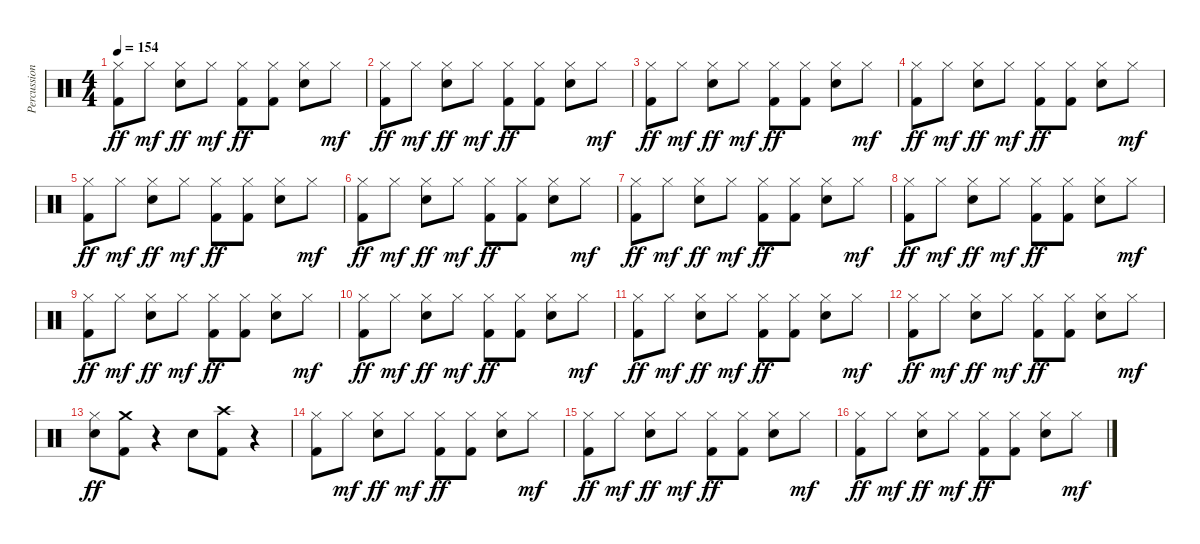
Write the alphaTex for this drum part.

\track ("Percussions" "Percussion") {instrument percussion}
\staff {score}
\articulation defaults
\ts (4 4)
\tempo 154
\clef neutral
\ks c
("Hi-Hat (closed)" "Kick (hit) 2").8{dy ff} "Hi-Hat (closed)".8{dy mf} ("Hi-Hat (closed)" "Electric Snare (hit)").8{dy ff} "Hi-Hat (closed)".8{dy mf} ("Hi-Hat (closed)" "Kick (hit) 2").8{dy ff} ("Hi-Hat (closed)" "Kick (hit) 2").8 ("Hi-Hat (closed)" "Electric Snare (hit)").8 "Hi-Hat (closed)".8{dy mf} |
("Hi-Hat (closed)" "Kick (hit) 2").8{dy ff} "Hi-Hat (closed)".8{dy mf} ("Hi-Hat (closed)" "Electric Snare (hit)").8{dy ff} "Hi-Hat (closed)".8{dy mf} ("Hi-Hat (closed)" "Kick (hit) 2").8{dy ff} ("Hi-Hat (closed)" "Kick (hit) 2").8 ("Hi-Hat (closed)" "Electric Snare (hit)").8 "Hi-Hat (closed)".8{dy mf} |
("Hi-Hat (closed)" "Kick (hit) 2").8{dy ff} "Hi-Hat (closed)".8{dy mf} ("Hi-Hat (closed)" "Electric Snare (hit)").8{dy ff} "Hi-Hat (closed)".8{dy mf} ("Hi-Hat (closed)" "Kick (hit) 2").8{dy ff} ("Hi-Hat (closed)" "Kick (hit) 2").8 ("Hi-Hat (closed)" "Electric Snare (hit)").8 "Hi-Hat (closed)".8{dy mf} |
("Hi-Hat (closed)" "Kick (hit) 2").8{dy ff} "Hi-Hat (closed)".8{dy mf} ("Hi-Hat (closed)" "Electric Snare (hit)").8{dy ff} "Hi-Hat (closed)".8{dy mf} ("Hi-Hat (closed)" "Kick (hit) 2").8{dy ff} ("Hi-Hat (closed)" "Kick (hit) 2").8 ("Hi-Hat (closed)" "Electric Snare (hit)").8 "Hi-Hat (closed)".8{dy mf} |
("Hi-Hat (closed)" "Kick (hit) 2").8{dy ff} "Hi-Hat (closed)".8{dy mf} ("Hi-Hat (closed)" "Electric Snare (hit)").8{dy ff} "Hi-Hat (closed)".8{dy mf} ("Hi-Hat (closed)" "Kick (hit) 2").8{dy ff} ("Hi-Hat (closed)" "Kick (hit) 2").8 ("Hi-Hat (closed)" "Electric Snare (hit)").8 "Hi-Hat (closed)".8{dy mf} |
("Hi-Hat (closed)" "Kick (hit) 2").8{dy ff} "Hi-Hat (closed)".8{dy mf} ("Hi-Hat (closed)" "Electric Snare (hit)").8{dy ff} "Hi-Hat (closed)".8{dy mf} ("Hi-Hat (closed)" "Kick (hit) 2").8{dy ff} ("Hi-Hat (closed)" "Kick (hit) 2").8 ("Hi-Hat (closed)" "Electric Snare (hit)").8 "Hi-Hat (closed)".8{dy mf} |
("Hi-Hat (closed)" "Kick (hit) 2").8{dy ff} "Hi-Hat (closed)".8{dy mf} ("Hi-Hat (closed)" "Electric Snare (hit)").8{dy ff} "Hi-Hat (closed)".8{dy mf} ("Hi-Hat (closed)" "Kick (hit) 2").8{dy ff} ("Hi-Hat (closed)" "Kick (hit) 2").8 ("Hi-Hat (closed)" "Electric Snare (hit)").8 "Hi-Hat (closed)".8{dy mf} |
("Hi-Hat (closed)" "Kick (hit) 2").8{dy ff} "Hi-Hat (closed)".8{dy mf} ("Hi-Hat (closed)" "Electric Snare (hit)").8{dy ff} "Hi-Hat (closed)".8{dy mf} ("Hi-Hat (closed)" "Kick (hit) 2").8{dy ff} ("Hi-Hat (closed)" "Kick (hit) 2").8 ("Hi-Hat (closed)" "Electric Snare (hit)").8 "Hi-Hat (closed)".8{dy mf} |
("Hi-Hat (closed)" "Kick (hit) 2").8{dy ff} "Hi-Hat (closed)".8{dy mf} ("Hi-Hat (closed)" "Electric Snare (hit)").8{dy ff} "Hi-Hat (closed)".8{dy mf} ("Hi-Hat (closed)" "Kick (hit) 2").8{dy ff} ("Hi-Hat (closed)" "Kick (hit) 2").8 ("Hi-Hat (closed)" "Electric Snare (hit)").8 "Hi-Hat (closed)".8{dy mf} |
("Hi-Hat (closed)" "Kick (hit) 2").8{dy ff volume 14} "Hi-Hat (closed)".8{dy mf} ("Hi-Hat (closed)" "Electric Snare (hit)").8{dy ff} "Hi-Hat (closed)".8{dy mf} ("Hi-Hat (closed)" "Kick (hit) 2").8{dy ff} ("Hi-Hat (closed)" "Kick (hit) 2").8 ("Hi-Hat (closed)" "Electric Snare (hit)").8 "Hi-Hat (closed)".8{dy mf} |
("Hi-Hat (closed)" "Kick (hit) 2").8{dy ff} "Hi-Hat (closed)".8{dy mf} ("Hi-Hat (closed)" "Electric Snare (hit)").8{dy ff} "Hi-Hat (closed)".8{dy mf} ("Hi-Hat (closed)" "Kick (hit) 2").8{dy ff} ("Hi-Hat (closed)" "Kick (hit) 2").8 ("Hi-Hat (closed)" "Electric Snare (hit)").8 "Hi-Hat (closed)".8{dy mf} |
("Hi-Hat (closed)" "Kick (hit) 2").8{dy ff} "Hi-Hat (closed)".8{dy mf} ("Hi-Hat (closed)" "Electric Snare (hit)").8{dy ff} "Hi-Hat (closed)".8{dy mf} ("Hi-Hat (closed)" "Kick (hit) 2").8{dy ff} ("Hi-Hat (closed)" "Kick (hit) 2").8 ("Hi-Hat (closed)" "Electric Snare (hit)").8 "Hi-Hat (closed)".8{dy mf} |
("Hi-Hat (closed)" "Electric Snare (hit)").8{dy ff} ("Crash medium (hit)" "Kick (hit) 2").8 r.4 "Electric Snare (hit)".8 ("Crash high (hit)" "Kick (hit) 2").8 r.4 |
("Hi-Hat (closed)" "Kick (hit) 2").8 "Hi-Hat (closed)".8{dy mf} ("Hi-Hat (closed)" "Electric Snare (hit)").8{dy ff} "Hi-Hat (closed)".8{dy mf} ("Hi-Hat (closed)" "Kick (hit) 2").8{dy ff} ("Hi-Hat (closed)" "Kick (hit) 2").8 ("Hi-Hat (closed)" "Electric Snare (hit)").8 "Hi-Hat (closed)".8{dy mf} |
("Hi-Hat (closed)" "Kick (hit) 2").8{dy ff} "Hi-Hat (closed)".8{dy mf} ("Hi-Hat (closed)" "Electric Snare (hit)").8{dy ff} "Hi-Hat (closed)".8{dy mf} ("Hi-Hat (closed)" "Kick (hit) 2").8{dy ff} ("Hi-Hat (closed)" "Kick (hit) 2").8 ("Hi-Hat (closed)" "Electric Snare (hit)").8 "Hi-Hat (closed)".8{dy mf} |
("Hi-Hat (closed)" "Kick (hit) 2").8{dy ff} "Hi-Hat (closed)".8{dy mf} ("Hi-Hat (closed)" "Electric Snare (hit)").8{dy ff} "Hi-Hat (closed)".8{dy mf} ("Hi-Hat (closed)" "Kick (hit) 2").8{dy ff} ("Hi-Hat (closed)" "Kick (hit) 2").8 ("Hi-Hat (closed)" "Electric Snare (hit)").8 "Hi-Hat (closed)".8{dy mf}
